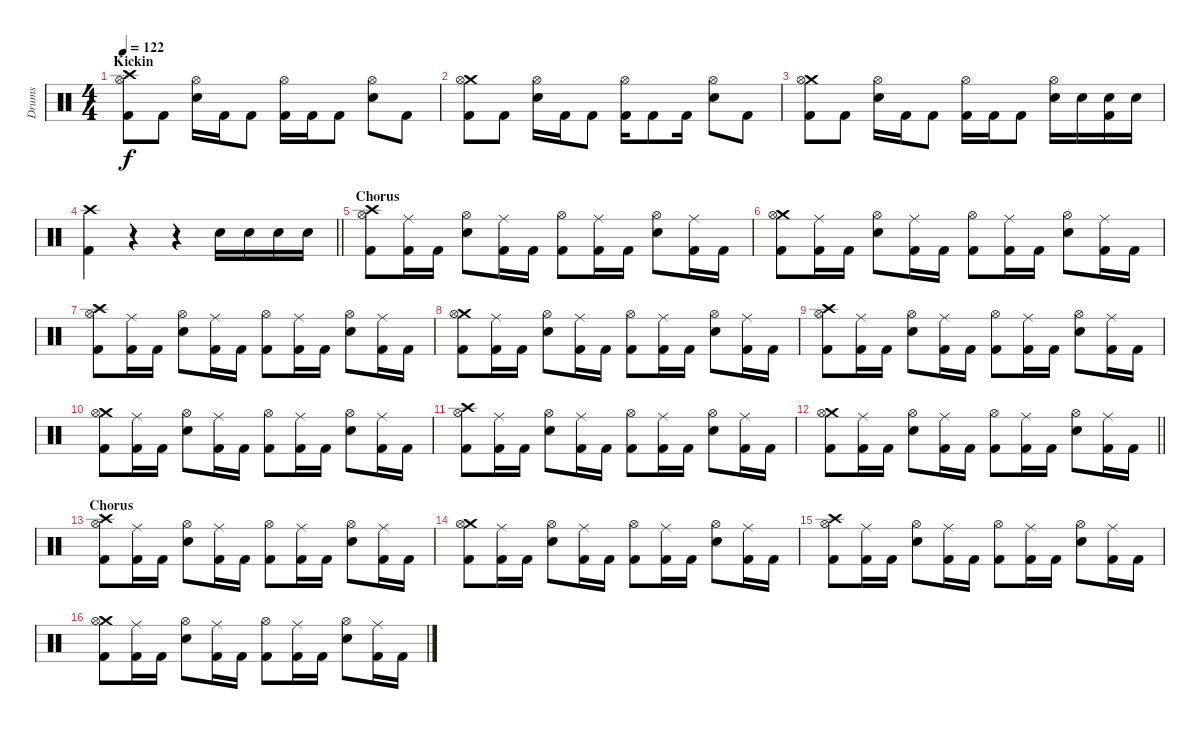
\track ("Drums" "Drums") {instrument percussion}
\staff {score}
\articulation defaults
\ts (4 4)
\section ("" "Kickin")
\tempo 122
\clef neutral
\ks c
("Crash high (hit)" "Hi-Hat (open)" "Kick (hit) 2").8{dy f} "Kick (hit) 2".8 ("Hi-Hat (open)" "Snare (hit) 2").16 "Kick (hit) 2".16 "Kick (hit) 2".8 ("Hi-Hat (open)" "Kick (hit) 2").16 "Kick (hit) 2".16 "Kick (hit) 2".8 ("Hi-Hat (open)" "Snare (hit) 2").8 "Kick (hit) 2".8 |
("Crash medium (hit)" "Hi-Hat (open)" "Kick (hit) 2").8 "Kick (hit) 2".8 ("Hi-Hat (open)" "Snare (hit) 2").16 "Kick (hit) 2".16 "Kick (hit) 2".8 ("Hi-Hat (open)" "Kick (hit) 2").16 "Kick (hit) 2".8 "Kick (hit) 2".16 ("Hi-Hat (open)" "Snare (hit) 2").8 "Kick (hit) 2".8 |
("Crash medium (hit)" "Hi-Hat (open)" "Kick (hit) 2").8 "Kick (hit) 2".8 ("Hi-Hat (open)" "Snare (hit) 2").16 "Kick (hit) 2".16 "Kick (hit) 2".8 ("Hi-Hat (open)" "Kick (hit) 2").16 "Kick (hit) 2".16 "Kick (hit) 2".8 ("Hi-Hat (open)" "Snare (hit) 2").16 "Snare (hit) 2".16 ("Snare (hit) 2" "Kick (hit) 2").16 "Snare (hit) 2".16 |
\barLineRight lightlight
("Crash high (hit)" "Kick (hit) 2").4 r.4 r.4 "Snare (hit) 2".16 "Snare (hit) 2".16 "Snare (hit) 2".16 "Snare (hit) 2".16 |
\section ("" "Chorus")
("Crash high (hit)" "Hi-Hat (open)" "Kick (hit) 2").8 ("Ride (middle)" "Kick (hit) 2").16 "Kick (hit) 2".16 ("Hi-Hat (open)" "Snare (hit) 2").8 ("Ride (middle)" "Kick (hit) 2").16 "Kick (hit) 2".16 ("Hi-Hat (open)" "Kick (hit) 2").8 ("Ride (middle)" "Kick (hit) 2").16 "Kick (hit) 2".16 ("Hi-Hat (open)" "Snare (hit) 2").8 ("Ride (middle)" "Kick (hit) 2").16 "Kick (hit) 2".16 |
("Crash medium (hit)" "Hi-Hat (open)" "Kick (hit) 2").8 ("Ride (middle)" "Kick (hit) 2").16 "Kick (hit) 2".16 ("Hi-Hat (open)" "Snare (hit) 2").8 ("Ride (middle)" "Kick (hit) 2").16 "Kick (hit) 2".16 ("Hi-Hat (open)" "Kick (hit) 2").8 ("Ride (middle)" "Kick (hit) 2").16 "Kick (hit) 2".16 ("Hi-Hat (open)" "Snare (hit) 2").8 ("Ride (middle)" "Kick (hit) 2").16 "Kick (hit) 2".16 |
("Crash high (hit)" "Hi-Hat (open)" "Kick (hit) 2").8 ("Ride (middle)" "Kick (hit) 2").16 "Kick (hit) 2".16 ("Hi-Hat (open)" "Snare (hit) 2").8 ("Ride (middle)" "Kick (hit) 2").16 "Kick (hit) 2".16 ("Hi-Hat (open)" "Kick (hit) 2").8 ("Ride (middle)" "Kick (hit) 2").16 "Kick (hit) 2".16 ("Hi-Hat (open)" "Snare (hit) 2").8 ("Ride (middle)" "Kick (hit) 2").16 "Kick (hit) 2".16 |
("Crash medium (hit)" "Hi-Hat (open)" "Kick (hit) 2").8 ("Ride (middle)" "Kick (hit) 2").16 "Kick (hit) 2".16 ("Hi-Hat (open)" "Snare (hit) 2").8 ("Ride (middle)" "Kick (hit) 2").16 "Kick (hit) 2".16 ("Hi-Hat (open)" "Kick (hit) 2").8 ("Ride (middle)" "Kick (hit) 2").16 "Kick (hit) 2".16 ("Hi-Hat (open)" "Snare (hit) 2").8 ("Ride (middle)" "Kick (hit) 2").16 "Kick (hit) 2".16 |
("Crash high (hit)" "Hi-Hat (open)" "Kick (hit) 2").8 ("Ride (middle)" "Kick (hit) 2").16 "Kick (hit) 2".16 ("Hi-Hat (open)" "Snare (hit) 2").8 ("Ride (middle)" "Kick (hit) 2").16 "Kick (hit) 2".16 ("Hi-Hat (open)" "Kick (hit) 2").8 ("Ride (middle)" "Kick (hit) 2").16 "Kick (hit) 2".16 ("Hi-Hat (open)" "Snare (hit) 2").8 ("Ride (middle)" "Kick (hit) 2").16 "Kick (hit) 2".16 |
("Crash medium (hit)" "Hi-Hat (open)" "Kick (hit) 2").8 ("Ride (middle)" "Kick (hit) 2").16 "Kick (hit) 2".16 ("Hi-Hat (open)" "Snare (hit) 2").8 ("Ride (middle)" "Kick (hit) 2").16 "Kick (hit) 2".16 ("Hi-Hat (open)" "Kick (hit) 2").8 ("Ride (middle)" "Kick (hit) 2").16 "Kick (hit) 2".16 ("Hi-Hat (open)" "Snare (hit) 2").8 ("Ride (middle)" "Kick (hit) 2").16 "Kick (hit) 2".16 |
("Crash high (hit)" "Hi-Hat (open)" "Kick (hit) 2").8 ("Ride (middle)" "Kick (hit) 2").16 "Kick (hit) 2".16 ("Hi-Hat (open)" "Snare (hit) 2").8 ("Ride (middle)" "Kick (hit) 2").16 "Kick (hit) 2".16 ("Hi-Hat (open)" "Kick (hit) 2").8 ("Ride (middle)" "Kick (hit) 2").16 "Kick (hit) 2".16 ("Hi-Hat (open)" "Snare (hit) 2").8 ("Ride (middle)" "Kick (hit) 2").16 "Kick (hit) 2".16 |
\barLineRight lightlight
("Crash medium (hit)" "Hi-Hat (open)" "Kick (hit) 2").8 ("Ride (middle)" "Kick (hit) 2").16 "Kick (hit) 2".16 ("Hi-Hat (open)" "Snare (hit) 2").8 ("Ride (middle)" "Kick (hit) 2").16 "Kick (hit) 2".16 ("Hi-Hat (open)" "Kick (hit) 2").8 ("Ride (middle)" "Kick (hit) 2").16 "Kick (hit) 2".16 ("Hi-Hat (open)" "Snare (hit) 2").8 ("Ride (middle)" "Kick (hit) 2").16 "Kick (hit) 2".16 |
\section ("" "Chorus")
("Crash high (hit)" "Hi-Hat (open)" "Kick (hit) 2").8 ("Ride (middle)" "Kick (hit) 2").16 "Kick (hit) 2".16 ("Hi-Hat (open)" "Snare (hit) 2").8 ("Ride (middle)" "Kick (hit) 2").16 "Kick (hit) 2".16 ("Hi-Hat (open)" "Kick (hit) 2").8 ("Ride (middle)" "Kick (hit) 2").16 "Kick (hit) 2".16 ("Hi-Hat (open)" "Snare (hit) 2").8 ("Ride (middle)" "Kick (hit) 2").16 "Kick (hit) 2".16 |
("Crash medium (hit)" "Hi-Hat (open)" "Kick (hit) 2").8 ("Ride (middle)" "Kick (hit) 2").16 "Kick (hit) 2".16 ("Hi-Hat (open)" "Snare (hit) 2").8 ("Ride (middle)" "Kick (hit) 2").16 "Kick (hit) 2".16 ("Hi-Hat (open)" "Kick (hit) 2").8 ("Ride (middle)" "Kick (hit) 2").16 "Kick (hit) 2".16 ("Hi-Hat (open)" "Snare (hit) 2").8 ("Ride (middle)" "Kick (hit) 2").16 "Kick (hit) 2".16 |
("Crash high (hit)" "Hi-Hat (open)" "Kick (hit) 2").8 ("Ride (middle)" "Kick (hit) 2").16 "Kick (hit) 2".16 ("Hi-Hat (open)" "Snare (hit) 2").8 ("Ride (middle)" "Kick (hit) 2").16 "Kick (hit) 2".16 ("Hi-Hat (open)" "Kick (hit) 2").8 ("Ride (middle)" "Kick (hit) 2").16 "Kick (hit) 2".16 ("Hi-Hat (open)" "Snare (hit) 2").8 ("Ride (middle)" "Kick (hit) 2").16 "Kick (hit) 2".16 |
("Crash medium (hit)" "Hi-Hat (open)" "Kick (hit) 2").8 ("Ride (middle)" "Kick (hit) 2").16 "Kick (hit) 2".16 ("Hi-Hat (open)" "Snare (hit) 2").8 ("Ride (middle)" "Kick (hit) 2").16 "Kick (hit) 2".16 ("Hi-Hat (open)" "Kick (hit) 2").8 ("Ride (middle)" "Kick (hit) 2").16 "Kick (hit) 2".16 ("Hi-Hat (open)" "Snare (hit) 2").8 ("Ride (middle)" "Kick (hit) 2").16 "Kick (hit) 2".16
